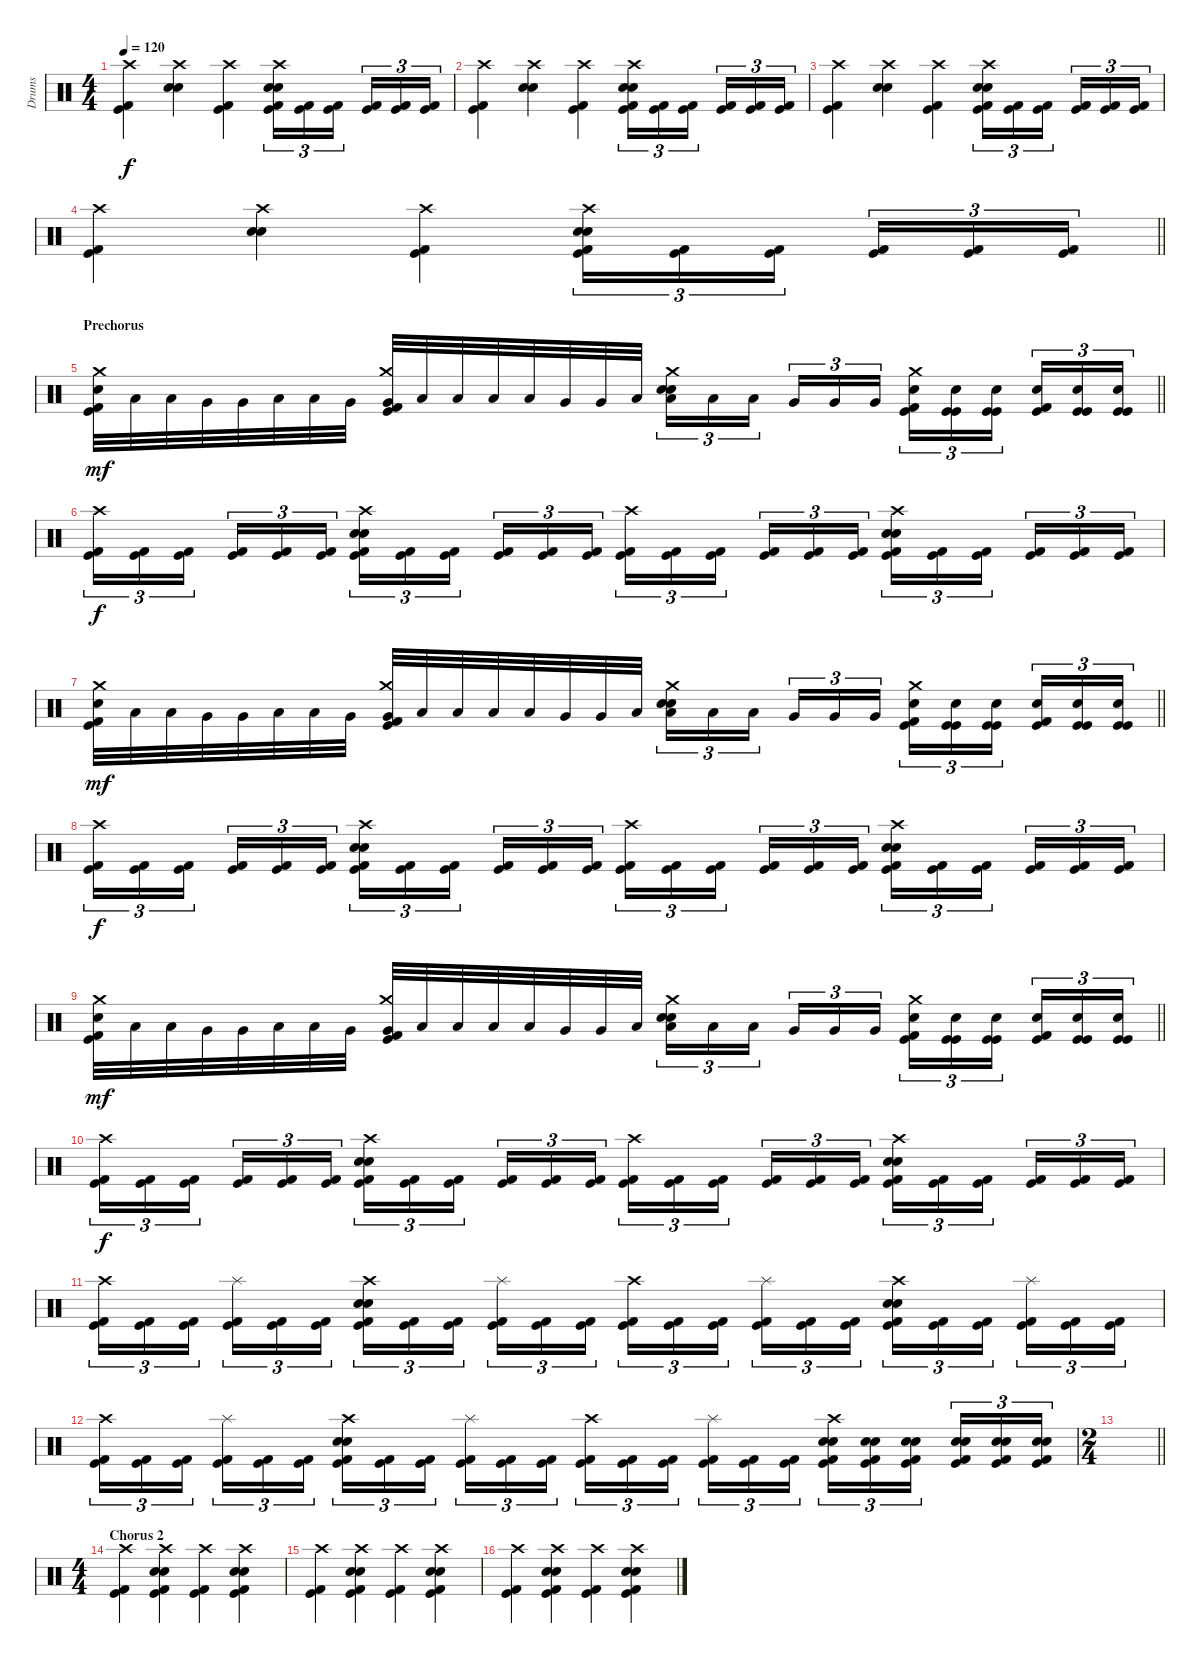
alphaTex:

\track ("Drums" "Drums") {instrument percussion}
\staff {score}
\articulation defaults
\ts (4 4)
\tempo 120
\clef neutral
\ks c
("Crash high (hit)" "Kick (hit) 2" "Kick (hit)").4{dy f} ("Crash high (hit)" "Electric Snare (hit)" "Electric Snare (hit)").4 ("Crash high (hit)" "Kick (hit) 2" "Kick (hit)").4 ("Crash high (hit)" "Electric Snare (hit)" "Electric Snare (hit)" "Kick (hit)" "Kick (hit) 2").16{tu (3 2)} ("Kick (hit)" "Kick (hit) 2").16{tu (3 2)} ("Kick (hit)" "Kick (hit) 2").16{tu (3 2) beam splitsecondary} ("Kick (hit)" "Kick (hit) 2").16{tu (3 2)} ("Kick (hit)" "Kick (hit) 2").16{tu (3 2)} ("Kick (hit)" "Kick (hit) 2").16{tu (3 2)} |
("Crash high (hit)" "Kick (hit) 2" "Kick (hit)").4 ("Crash high (hit)" "Electric Snare (hit)" "Electric Snare (hit)").4 ("Crash high (hit)" "Kick (hit) 2" "Kick (hit)").4 ("Crash high (hit)" "Electric Snare (hit)" "Electric Snare (hit)" "Kick (hit)" "Kick (hit) 2").16{tu (3 2)} ("Kick (hit)" "Kick (hit) 2").16{tu (3 2)} ("Kick (hit)" "Kick (hit) 2").16{tu (3 2) beam splitsecondary} ("Kick (hit)" "Kick (hit) 2").16{tu (3 2)} ("Kick (hit)" "Kick (hit) 2").16{tu (3 2)} ("Kick (hit)" "Kick (hit) 2").16{tu (3 2)} |
("Crash high (hit)" "Kick (hit) 2" "Kick (hit)").4 ("Crash high (hit)" "Electric Snare (hit)" "Electric Snare (hit)").4 ("Crash high (hit)" "Kick (hit) 2" "Kick (hit)").4 ("Crash high (hit)" "Electric Snare (hit)" "Electric Snare (hit)" "Kick (hit)" "Kick (hit) 2").16{tu (3 2)} ("Kick (hit)" "Kick (hit) 2").16{tu (3 2)} ("Kick (hit)" "Kick (hit) 2").16{tu (3 2) beam splitsecondary} ("Kick (hit)" "Kick (hit) 2").16{tu (3 2)} ("Kick (hit)" "Kick (hit) 2").16{tu (3 2)} ("Kick (hit)" "Kick (hit) 2").16{tu (3 2)} |
\barLineRight lightlight
("Crash high (hit)" "Kick (hit) 2" "Kick (hit)").4 ("Crash high (hit)" "Electric Snare (hit)" "Electric Snare (hit)").4 ("Crash high (hit)" "Kick (hit) 2" "Kick (hit)").4 ("Crash high (hit)" "Electric Snare (hit)" "Electric Snare (hit)" "Kick (hit)" "Kick (hit) 2").16{tu (3 2)} ("Kick (hit)" "Kick (hit) 2").16{tu (3 2)} ("Kick (hit)" "Kick (hit) 2").16{tu (3 2) beam splitsecondary} ("Kick (hit)" "Kick (hit) 2").16{tu (3 2)} ("Kick (hit)" "Kick (hit) 2").16{tu (3 2)} ("Kick (hit)" "Kick (hit) 2").16{tu (3 2)} |
\section ("" "Prechorus")
\barLineRight lightlight
("Crash medium (hit)" "Electric Snare (hit)" "Kick (hit)" "Kick (hit) 2").32{dy mf} "Low Tom (hit)".32 "Low Tom (hit)".32 "Very Low Tom (hit)".32 "Very Low Tom (hit)".32 "Low Floor Tom (hit)".32 "Low Floor Tom (hit)".32 "Very Low Tom (hit)".32 ("Crash medium (hit)" "Very Low Tom (hit)" "Kick (hit)" "Kick (hit) 2").32 "Low Floor Tom (hit)".32 "Low Floor Tom (hit)".32 "Low Tom (hit)".32 "Low Tom (hit)".32 "Very Low Tom (hit)".32 "Very Low Tom (hit)".32 "Low Floor Tom (hit)".32 ("Crash medium (hit)" "Low Floor Tom (hit)" "Electric Snare (hit)" "Electric Snare (hit)").16{tu (3 2)} "Low Floor Tom (hit)".16{tu (3 2)} "Low Floor Tom (hit)".16{tu (3 2) beam splitsecondary} "Very Low Tom (hit)".16{tu (3 2)} "Very Low Tom (hit)".16{tu (3 2)} "Very Low Tom (hit)".16{tu (3 2)} ("Crash medium (hit)" "Electric Snare (hit)" "Kick (hit)" "Kick (hit) 2").16{tu (3 2)} ("Electric Snare (hit)" "Kick (hit)" "Kick (hit)").16{tu (3 2)} ("Electric Snare (hit)" "Kick (hit)" "Kick (hit)").16{tu (3 2) beam splitsecondary} ("Electric Snare (hit)" "Kick (hit) 2" "Kick (hit)").16{tu (3 2)} ("Electric Snare (hit)" "Kick (hit)" "Kick (hit)").16{tu (3 2)} ("Electric Snare (hit)" "Kick (hit)" "Kick (hit)").16{tu (3 2)} |
("Crash high (hit)" "Kick (hit) 2" "Kick (hit)").16{tu (3 2) dy f} ("Kick (hit) 2" "Kick (hit)").16{tu (3 2)} ("Kick (hit) 2" "Kick (hit)").16{tu (3 2) beam splitsecondary} ("Kick (hit) 2" "Kick (hit)").16{tu (3 2)} ("Kick (hit) 2" "Kick (hit)").16{tu (3 2)} ("Kick (hit) 2" "Kick (hit)").16{tu (3 2)} ("Crash high (hit)" "Electric Snare (hit)" "Electric Snare (hit)" "Kick (hit) 2" "Kick (hit)").16{tu (3 2)} ("Kick (hit) 2" "Kick (hit)").16{tu (3 2)} ("Kick (hit) 2" "Kick (hit)").16{tu (3 2) beam splitsecondary} ("Kick (hit) 2" "Kick (hit)").16{tu (3 2)} ("Kick (hit) 2" "Kick (hit)").16{tu (3 2)} ("Kick (hit) 2" "Kick (hit)").16{tu (3 2)} ("Crash high (hit)" "Kick (hit) 2" "Kick (hit)").16{tu (3 2)} ("Kick (hit) 2" "Kick (hit)").16{tu (3 2)} ("Kick (hit) 2" "Kick (hit)").16{tu (3 2) beam splitsecondary} ("Kick (hit) 2" "Kick (hit)").16{tu (3 2)} ("Kick (hit) 2" "Kick (hit)").16{tu (3 2)} ("Kick (hit) 2" "Kick (hit)").16{tu (3 2)} ("Crash high (hit)" "Electric Snare (hit)" "Electric Snare (hit)" "Kick (hit) 2" "Kick (hit)").16{tu (3 2)} ("Kick (hit) 2" "Kick (hit)").16{tu (3 2)} ("Kick (hit) 2" "Kick (hit)").16{tu (3 2) beam splitsecondary} ("Kick (hit) 2" "Kick (hit)").16{tu (3 2)} ("Kick (hit) 2" "Kick (hit)").16{tu (3 2)} ("Kick (hit) 2" "Kick (hit)").16{tu (3 2)} |
\barLineRight lightlight
("Crash medium (hit)" "Electric Snare (hit)" "Kick (hit)" "Kick (hit) 2").32{dy mf} "Low Tom (hit)".32 "Low Tom (hit)".32 "Very Low Tom (hit)".32 "Very Low Tom (hit)".32 "Low Floor Tom (hit)".32 "Low Floor Tom (hit)".32 "Very Low Tom (hit)".32 ("Crash medium (hit)" "Very Low Tom (hit)" "Kick (hit)" "Kick (hit) 2").32 "Low Floor Tom (hit)".32 "Low Floor Tom (hit)".32 "Low Tom (hit)".32 "Low Tom (hit)".32 "Very Low Tom (hit)".32 "Very Low Tom (hit)".32 "Low Floor Tom (hit)".32 ("Crash medium (hit)" "Low Floor Tom (hit)" "Electric Snare (hit)" "Electric Snare (hit)").16{tu (3 2)} "Low Floor Tom (hit)".16{tu (3 2)} "Low Floor Tom (hit)".16{tu (3 2) beam splitsecondary} "Very Low Tom (hit)".16{tu (3 2)} "Very Low Tom (hit)".16{tu (3 2)} "Very Low Tom (hit)".16{tu (3 2)} ("Crash medium (hit)" "Electric Snare (hit)" "Kick (hit)" "Kick (hit) 2").16{tu (3 2)} ("Electric Snare (hit)" "Kick (hit)" "Kick (hit)").16{tu (3 2)} ("Electric Snare (hit)" "Kick (hit)" "Kick (hit)").16{tu (3 2) beam splitsecondary} ("Electric Snare (hit)" "Kick (hit) 2" "Kick (hit)").16{tu (3 2)} ("Electric Snare (hit)" "Kick (hit)" "Kick (hit)").16{tu (3 2)} ("Electric Snare (hit)" "Kick (hit)" "Kick (hit)").16{tu (3 2)} |
("Crash high (hit)" "Kick (hit) 2" "Kick (hit)").16{tu (3 2) dy f} ("Kick (hit) 2" "Kick (hit)").16{tu (3 2)} ("Kick (hit) 2" "Kick (hit)").16{tu (3 2) beam splitsecondary} ("Kick (hit) 2" "Kick (hit)").16{tu (3 2)} ("Kick (hit) 2" "Kick (hit)").16{tu (3 2)} ("Kick (hit) 2" "Kick (hit)").16{tu (3 2)} ("Crash high (hit)" "Electric Snare (hit)" "Electric Snare (hit)" "Kick (hit) 2" "Kick (hit)").16{tu (3 2)} ("Kick (hit) 2" "Kick (hit)").16{tu (3 2)} ("Kick (hit) 2" "Kick (hit)").16{tu (3 2) beam splitsecondary} ("Kick (hit) 2" "Kick (hit)").16{tu (3 2)} ("Kick (hit) 2" "Kick (hit)").16{tu (3 2)} ("Kick (hit) 2" "Kick (hit)").16{tu (3 2)} ("Crash high (hit)" "Kick (hit) 2" "Kick (hit)").16{tu (3 2)} ("Kick (hit) 2" "Kick (hit)").16{tu (3 2)} ("Kick (hit) 2" "Kick (hit)").16{tu (3 2) beam splitsecondary} ("Kick (hit) 2" "Kick (hit)").16{tu (3 2)} ("Kick (hit) 2" "Kick (hit)").16{tu (3 2)} ("Kick (hit) 2" "Kick (hit)").16{tu (3 2)} ("Crash high (hit)" "Electric Snare (hit)" "Electric Snare (hit)" "Kick (hit) 2" "Kick (hit)").16{tu (3 2)} ("Kick (hit) 2" "Kick (hit)").16{tu (3 2)} ("Kick (hit) 2" "Kick (hit)").16{tu (3 2) beam splitsecondary} ("Kick (hit) 2" "Kick (hit)").16{tu (3 2)} ("Kick (hit) 2" "Kick (hit)").16{tu (3 2)} ("Kick (hit) 2" "Kick (hit)").16{tu (3 2)} |
\barLineRight lightlight
("Crash medium (hit)" "Electric Snare (hit)" "Kick (hit)" "Kick (hit) 2").32{dy mf} "Low Tom (hit)".32 "Low Tom (hit)".32 "Very Low Tom (hit)".32 "Very Low Tom (hit)".32 "Low Floor Tom (hit)".32 "Low Floor Tom (hit)".32 "Very Low Tom (hit)".32 ("Crash medium (hit)" "Very Low Tom (hit)" "Kick (hit)" "Kick (hit) 2").32 "Low Floor Tom (hit)".32 "Low Floor Tom (hit)".32 "Low Tom (hit)".32 "Low Tom (hit)".32 "Very Low Tom (hit)".32 "Very Low Tom (hit)".32 "Low Floor Tom (hit)".32 ("Crash medium (hit)" "Low Floor Tom (hit)" "Electric Snare (hit)" "Electric Snare (hit)").16{tu (3 2)} "Low Floor Tom (hit)".16{tu (3 2)} "Low Floor Tom (hit)".16{tu (3 2) beam splitsecondary} "Very Low Tom (hit)".16{tu (3 2)} "Very Low Tom (hit)".16{tu (3 2)} "Very Low Tom (hit)".16{tu (3 2)} ("Crash medium (hit)" "Electric Snare (hit)" "Kick (hit)" "Kick (hit) 2").16{tu (3 2)} ("Electric Snare (hit)" "Kick (hit)" "Kick (hit)").16{tu (3 2)} ("Electric Snare (hit)" "Kick (hit)" "Kick (hit)").16{tu (3 2) beam splitsecondary} ("Electric Snare (hit)" "Kick (hit) 2" "Kick (hit)").16{tu (3 2)} ("Electric Snare (hit)" "Kick (hit)" "Kick (hit)").16{tu (3 2)} ("Electric Snare (hit)" "Kick (hit)" "Kick (hit)").16{tu (3 2)} |
("Crash high (hit)" "Kick (hit) 2" "Kick (hit)").16{tu (3 2) dy f} ("Kick (hit) 2" "Kick (hit)").16{tu (3 2)} ("Kick (hit) 2" "Kick (hit)").16{tu (3 2) beam splitsecondary} ("Kick (hit) 2" "Kick (hit)").16{tu (3 2)} ("Kick (hit) 2" "Kick (hit)").16{tu (3 2)} ("Kick (hit) 2" "Kick (hit)").16{tu (3 2)} ("Crash high (hit)" "Electric Snare (hit)" "Electric Snare (hit)" "Kick (hit) 2" "Kick (hit)").16{tu (3 2)} ("Kick (hit) 2" "Kick (hit)").16{tu (3 2)} ("Kick (hit) 2" "Kick (hit)").16{tu (3 2) beam splitsecondary} ("Kick (hit) 2" "Kick (hit)").16{tu (3 2)} ("Kick (hit) 2" "Kick (hit)").16{tu (3 2)} ("Kick (hit) 2" "Kick (hit)").16{tu (3 2)} ("Crash high (hit)" "Kick (hit) 2" "Kick (hit)").16{tu (3 2)} ("Kick (hit) 2" "Kick (hit)").16{tu (3 2)} ("Kick (hit) 2" "Kick (hit)").16{tu (3 2) beam splitsecondary} ("Kick (hit) 2" "Kick (hit)").16{tu (3 2)} ("Kick (hit) 2" "Kick (hit)").16{tu (3 2)} ("Kick (hit) 2" "Kick (hit)").16{tu (3 2)} ("Crash high (hit)" "Electric Snare (hit)" "Electric Snare (hit)" "Kick (hit) 2" "Kick (hit)").16{tu (3 2)} ("Kick (hit) 2" "Kick (hit)").16{tu (3 2)} ("Kick (hit) 2" "Kick (hit)").16{tu (3 2) beam splitsecondary} ("Kick (hit) 2" "Kick (hit)").16{tu (3 2)} ("Kick (hit) 2" "Kick (hit)").16{tu (3 2)} ("Kick (hit) 2" "Kick (hit)").16{tu (3 2)} |
("Crash high (hit)" "Kick (hit) 2" "Kick (hit)").16{tu (3 2)} ("Kick (hit) 2" "Kick (hit)").16{tu (3 2)} ("Kick (hit) 2" "Kick (hit)").16{tu (3 2) beam splitsecondary} ("Splash (hit)" "Kick (hit) 2" "Kick (hit)").16{tu (3 2)} ("Kick (hit) 2" "Kick (hit)").16{tu (3 2)} ("Kick (hit) 2" "Kick (hit)").16{tu (3 2)} ("Crash high (hit)" "Electric Snare (hit)" "Electric Snare (hit)" "Kick (hit) 2" "Kick (hit)").16{tu (3 2)} ("Kick (hit) 2" "Kick (hit)").16{tu (3 2)} ("Kick (hit) 2" "Kick (hit)").16{tu (3 2) beam splitsecondary} ("Splash (hit)" "Kick (hit) 2" "Kick (hit)").16{tu (3 2)} ("Kick (hit) 2" "Kick (hit)").16{tu (3 2)} ("Kick (hit) 2" "Kick (hit)").16{tu (3 2)} ("Crash high (hit)" "Kick (hit) 2" "Kick (hit)").16{tu (3 2)} ("Kick (hit) 2" "Kick (hit)").16{tu (3 2)} ("Kick (hit) 2" "Kick (hit)").16{tu (3 2) beam splitsecondary} ("Splash (hit)" "Kick (hit) 2" "Kick (hit)").16{tu (3 2)} ("Kick (hit) 2" "Kick (hit)").16{tu (3 2)} ("Kick (hit) 2" "Kick (hit)").16{tu (3 2)} ("Crash high (hit)" "Electric Snare (hit)" "Electric Snare (hit)" "Kick (hit) 2" "Kick (hit)").16{tu (3 2)} ("Kick (hit) 2" "Kick (hit)").16{tu (3 2)} ("Kick (hit) 2" "Kick (hit)").16{tu (3 2) beam splitsecondary} ("Splash (hit)" "Kick (hit) 2" "Kick (hit)").16{tu (3 2)} ("Kick (hit) 2" "Kick (hit)").16{tu (3 2)} ("Kick (hit) 2" "Kick (hit)").16{tu (3 2)} |
("Crash high (hit)" "Kick (hit) 2" "Kick (hit)").16{tu (3 2)} ("Kick (hit) 2" "Kick (hit)").16{tu (3 2)} ("Kick (hit) 2" "Kick (hit)").16{tu (3 2) beam splitsecondary} ("Splash (hit)" "Kick (hit) 2" "Kick (hit)").16{tu (3 2)} ("Kick (hit) 2" "Kick (hit)").16{tu (3 2)} ("Kick (hit) 2" "Kick (hit)").16{tu (3 2)} ("Crash high (hit)" "Electric Snare (hit)" "Electric Snare (hit)" "Kick (hit) 2" "Kick (hit)").16{tu (3 2)} ("Kick (hit) 2" "Kick (hit)").16{tu (3 2)} ("Kick (hit) 2" "Kick (hit)").16{tu (3 2) beam splitsecondary} ("Splash (hit)" "Kick (hit) 2" "Kick (hit)").16{tu (3 2)} ("Kick (hit) 2" "Kick (hit)").16{tu (3 2)} ("Kick (hit) 2" "Kick (hit)").16{tu (3 2)} ("Crash high (hit)" "Kick (hit) 2" "Kick (hit)").16{tu (3 2)} ("Kick (hit) 2" "Kick (hit)").16{tu (3 2)} ("Kick (hit) 2" "Kick (hit)").16{tu (3 2) beam splitsecondary} ("Splash (hit)" "Kick (hit) 2" "Kick (hit)").16{tu (3 2)} ("Kick (hit) 2" "Kick (hit)").16{tu (3 2)} ("Kick (hit) 2" "Kick (hit)").16{tu (3 2)} ("Crash high (hit)" "Electric Snare (hit)" "Electric Snare (hit)" "Kick (hit) 2" "Kick (hit)").16{tu (3 2)} ("Electric Snare (hit)" "Electric Snare (hit)" "Kick (hit) 2" "Kick (hit)").16{tu (3 2)} ("Electric Snare (hit)" "Electric Snare (hit)" "Kick (hit) 2" "Kick (hit)").16{tu (3 2) beam splitsecondary} ("Electric Snare (hit)" "Electric Snare (hit)" "Kick (hit) 2" "Kick (hit)").16{tu (3 2)} ("Electric Snare (hit)" "Electric Snare (hit)" "Kick (hit) 2" "Kick (hit)").16{tu (3 2)} ("Electric Snare (hit)" "Electric Snare (hit)" "Kick (hit) 2" "Kick (hit)").16{tu (3 2)} |
\ts (2 4)
\barLineRight lightlight
|
\ts (4 4)
\section ("" "Chorus 2")
("Crash high (hit)" "Kick (hit)" "Kick (hit) 2").4 ("Crash high (hit)" "Electric Snare (hit)" "Electric Snare (hit)" "Kick (hit)" "Kick (hit) 2").4 ("Crash high (hit)" "Kick (hit)" "Kick (hit) 2").4 ("Crash high (hit)" "Electric Snare (hit)" "Electric Snare (hit)" "Kick (hit)" "Kick (hit) 2").4 |
("Crash high (hit)" "Kick (hit)" "Kick (hit) 2").4 ("Crash high (hit)" "Electric Snare (hit)" "Electric Snare (hit)" "Kick (hit)" "Kick (hit) 2").4 ("Crash high (hit)" "Kick (hit)" "Kick (hit) 2").4 ("Crash high (hit)" "Electric Snare (hit)" "Electric Snare (hit)" "Kick (hit)" "Kick (hit) 2").4 |
("Crash high (hit)" "Kick (hit)" "Kick (hit) 2").4 ("Crash high (hit)" "Electric Snare (hit)" "Electric Snare (hit)" "Kick (hit)" "Kick (hit) 2").4 ("Crash high (hit)" "Kick (hit)" "Kick (hit) 2").4 ("Crash high (hit)" "Electric Snare (hit)" "Electric Snare (hit)" "Kick (hit)" "Kick (hit) 2").4
